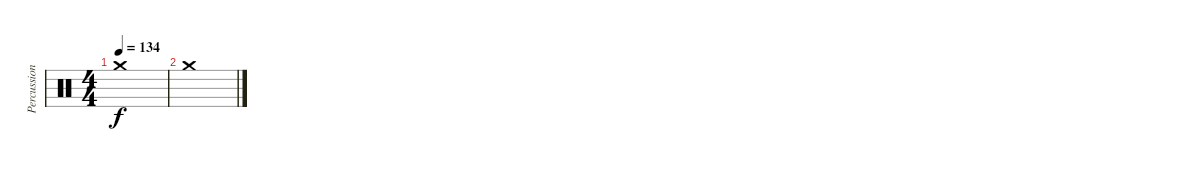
\track ("Percussion" "Percussion") {instrument percussion}
\staff {score}
\articulation defaults
\ts (4 4)
\tempo 134
\clef neutral
\ks c "Crash medium (hit)".1{dy f}
|
"Crash medium (hit)".1
